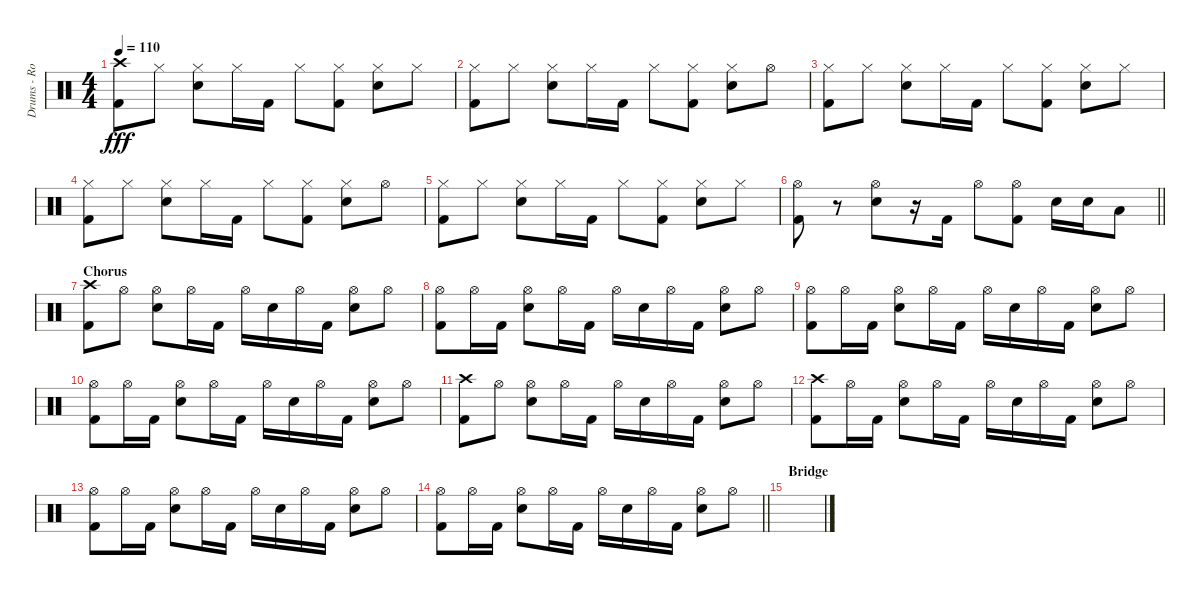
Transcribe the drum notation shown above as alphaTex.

\track ("Drums - Rob Bourdon" "Drums - Ro") {instrument percussion}
\staff {score}
\articulation defaults
\ts (4 4)
\tempo 110
\clef neutral
\ks c
("Crash high (hit)" "Kick (hit) 2").8{dy fff} "Hi-Hat (closed)".8 ("Hi-Hat (closed)" "Snare (hit) 2").8 "Hi-Hat (closed)".16 "Kick (hit) 2".16 "Hi-Hat (closed)".8 ("Hi-Hat (closed)" "Kick (hit) 2").8 ("Hi-Hat (closed)" "Snare (hit) 2").8 "Hi-Hat (closed)".8 |
("Hi-Hat (closed)" "Kick (hit) 2").8 "Hi-Hat (closed)".8 ("Hi-Hat (closed)" "Snare (hit) 2").8 "Hi-Hat (closed)".16 "Kick (hit) 2".16 "Hi-Hat (closed)".8 ("Hi-Hat (closed)" "Kick (hit) 2").8 ("Hi-Hat (closed)" "Snare (hit) 2").8 "Hi-Hat (open)".8 |
("Hi-Hat (closed)" "Kick (hit) 2").8 "Hi-Hat (closed)".8 ("Hi-Hat (closed)" "Snare (hit) 2").8 "Hi-Hat (closed)".16 "Kick (hit) 2".16 "Hi-Hat (closed)".8 ("Hi-Hat (closed)" "Kick (hit) 2").8 ("Hi-Hat (closed)" "Snare (hit) 2").8 "Hi-Hat (closed)".8 |
("Hi-Hat (closed)" "Kick (hit) 2").8 "Hi-Hat (closed)".8 ("Hi-Hat (closed)" "Snare (hit) 2").8 "Hi-Hat (closed)".16 "Kick (hit) 2".16 "Hi-Hat (closed)".8 ("Hi-Hat (closed)" "Kick (hit) 2").8 ("Hi-Hat (closed)" "Snare (hit) 2").8 "Hi-Hat (open)".8 |
("Hi-Hat (closed)" "Kick (hit) 2").8 "Hi-Hat (closed)".8 ("Hi-Hat (closed)" "Snare (hit) 2").8 "Hi-Hat (closed)".16 "Kick (hit) 2".16 "Hi-Hat (closed)".8 ("Hi-Hat (closed)" "Kick (hit) 2").8 ("Hi-Hat (closed)" "Snare (hit) 2").8 "Hi-Hat (closed)".8 |
\barLineRight lightlight
("Hi-Hat (open)" "Kick (hit) 2").8 r.8 ("Hi-Hat (open)" "Snare (hit) 2").8 r.16 "Kick (hit) 2".16 "Hi-Hat (open)".8 ("Hi-Hat (open)" "Kick (hit) 2").8 "Snare (hit) 2".16 "Snare (hit) 2".16 "Low Tom (hit)".8 |
\section ("" "Chorus")
("Crash high (hit)" "Kick (hit) 2").8 "Hi-Hat (open)".8 ("Hi-Hat (open)" "Snare (hit) 2").8 "Hi-Hat (open)".16 "Kick (hit) 2".16 "Hi-Hat (open)".16 "Snare (hit) 2".16 "Hi-Hat (open)".16 "Kick (hit) 2".16 ("Hi-Hat (open)" "Snare (hit) 2").8 "Hi-Hat (open)".8 |
("Hi-Hat (open)" "Kick (hit) 2").8 "Hi-Hat (open)".16 "Kick (hit) 2".16 ("Hi-Hat (open)" "Snare (hit) 2").8 "Hi-Hat (open)".16 "Kick (hit) 2".16 "Hi-Hat (open)".16 "Snare (hit) 2".16 "Hi-Hat (open)".16 "Kick (hit) 2".16 ("Hi-Hat (open)" "Snare (hit) 2").8 "Hi-Hat (open)".8 |
("Hi-Hat (open)" "Kick (hit) 2").8 "Hi-Hat (open)".16 "Kick (hit) 2".16 ("Hi-Hat (open)" "Snare (hit) 2").8 "Hi-Hat (open)".16 "Kick (hit) 2".16 "Hi-Hat (open)".16 "Snare (hit) 2".16 "Hi-Hat (open)".16 "Kick (hit) 2".16 ("Hi-Hat (open)" "Snare (hit) 2").8 "Hi-Hat (open)".8 |
("Hi-Hat (open)" "Kick (hit) 2").8 "Hi-Hat (open)".16 "Kick (hit) 2".16 ("Hi-Hat (open)" "Snare (hit) 2").8 "Hi-Hat (open)".16 "Kick (hit) 2".16 "Hi-Hat (open)".16 "Snare (hit) 2".16 "Hi-Hat (open)".16 "Kick (hit) 2".16 ("Hi-Hat (open)" "Snare (hit) 2").8 "Hi-Hat (open)".8 |
("Crash high (hit)" "Kick (hit) 2").8 "Hi-Hat (open)".8 ("Hi-Hat (open)" "Snare (hit) 2").8 "Hi-Hat (open)".16 "Kick (hit) 2".16 "Hi-Hat (open)".16 "Snare (hit) 2".16 "Hi-Hat (open)".16 "Kick (hit) 2".16 ("Hi-Hat (open)" "Snare (hit) 2").8 "Hi-Hat (open)".8 |
("Crash high (hit)" "Kick (hit) 2").8 "Hi-Hat (open)".16 "Kick (hit) 2".16 ("Hi-Hat (open)" "Snare (hit) 2").8 "Hi-Hat (open)".16 "Kick (hit) 2".16 "Hi-Hat (open)".16 "Snare (hit) 2".16 "Hi-Hat (open)".16 "Kick (hit) 2".16 ("Hi-Hat (open)" "Snare (hit) 2").8 "Hi-Hat (open)".8 |
("Hi-Hat (open)" "Kick (hit) 2").8 "Hi-Hat (open)".16 "Kick (hit) 2".16 ("Hi-Hat (open)" "Snare (hit) 2").8 "Hi-Hat (open)".16 "Kick (hit) 2".16 "Hi-Hat (open)".16 "Snare (hit) 2".16 "Hi-Hat (open)".16 "Kick (hit) 2".16 ("Hi-Hat (open)" "Snare (hit) 2").8 "Hi-Hat (open)".8 |
\barLineRight lightlight
("Hi-Hat (open)" "Kick (hit) 2").8 "Hi-Hat (open)".16 "Kick (hit) 2".16 ("Hi-Hat (open)" "Snare (hit) 2").8 "Hi-Hat (open)".16 "Kick (hit) 2".16 "Hi-Hat (open)".16 "Snare (hit) 2".16 "Hi-Hat (open)".16 "Kick (hit) 2".16 ("Hi-Hat (open)" "Snare (hit) 2").8 "Hi-Hat (open)".8 |
\section ("" "Bridge")
